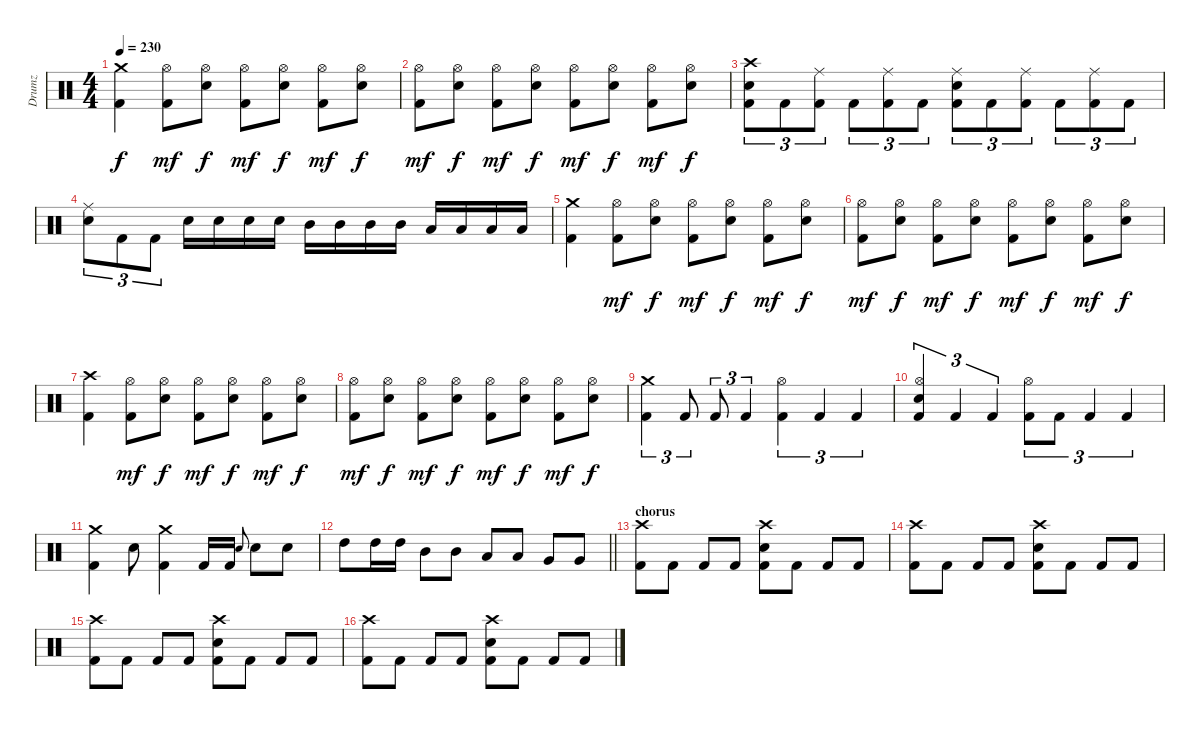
\track ("Drumz" "Drumz") {instrument percussion}
\staff {score}
\articulation defaults
\ts (4 4)
\tempo 230
\clef neutral
\ks c
("Crash medium (hit)" "Kick (hit) 2").4{dy f} ("Hi-Hat (open)" "Kick (hit) 2").8{dy mf} ("Hi-Hat (open)" "Electric Snare (hit)").8{dy f} ("Hi-Hat (open)" "Kick (hit) 2").8{dy mf} ("Hi-Hat (open)" "Electric Snare (hit)").8{dy f} ("Hi-Hat (open)" "Kick (hit) 2").8{dy mf} ("Hi-Hat (open)" "Electric Snare (hit)").8{dy f} |
("Hi-Hat (open)" "Kick (hit) 2").8{dy mf} ("Hi-Hat (open)" "Electric Snare (hit)").8{dy f} ("Hi-Hat (open)" "Kick (hit) 2").8{dy mf} ("Hi-Hat (open)" "Electric Snare (hit)").8{dy f} ("Hi-Hat (open)" "Kick (hit) 2").8{dy mf} ("Hi-Hat (open)" "Electric Snare (hit)").8{dy f} ("Hi-Hat (open)" "Kick (hit) 2").8{dy mf} ("Hi-Hat (open)" "Electric Snare (hit)").8{dy f} |
("Crash high (hit)" "Electric Snare (hit)" "Kick (hit) 2").8{tu (3 2)} "Kick (hit) 2".8{tu (3 2)} ("Ride (middle)" "Kick (hit) 2").8{tu (3 2)} "Kick (hit) 2".8{tu (3 2)} ("Ride (middle)" "Kick (hit) 2").8{tu (3 2)} "Kick (hit) 2".8{tu (3 2)} ("Ride (middle)" "Electric Snare (hit)" "Kick (hit) 2").8{tu (3 2)} "Kick (hit) 2".8{tu (3 2)} ("Ride (middle)" "Kick (hit) 2").8{tu (3 2)} "Kick (hit) 2".8{tu (3 2)} ("Ride (middle)" "Kick (hit) 2").8{tu (3 2)} "Kick (hit) 2".8{tu (3 2)} |
("Ride (middle)" "Electric Snare (hit)").8{tu (3 2)} "Kick (hit) 2".8{tu (3 2)} "Kick (hit) 2".8{tu (3 2)} "Electric Snare (hit)".16 "Electric Snare (hit)".16 "Electric Snare (hit)".16 "Electric Snare (hit)".16 "Mid Tom (hit)".16 "Mid Tom (hit)".16 "Mid Tom (hit)".16 "Mid Tom (hit)".16 "Low Tom (hit)".16 "Low Tom (hit)".16 "Low Tom (hit)".16 "Low Tom (hit)".16 |
("Crash medium (hit)" "Kick (hit) 2").4 ("Hi-Hat (open)" "Kick (hit) 2").8{dy mf} ("Hi-Hat (open)" "Electric Snare (hit)").8{dy f} ("Hi-Hat (open)" "Kick (hit) 2").8{dy mf} ("Hi-Hat (open)" "Electric Snare (hit)").8{dy f} ("Hi-Hat (open)" "Kick (hit) 2").8{dy mf} ("Hi-Hat (open)" "Electric Snare (hit)").8{dy f} |
("Hi-Hat (open)" "Kick (hit) 2").8{dy mf} ("Hi-Hat (open)" "Electric Snare (hit)").8{dy f} ("Hi-Hat (open)" "Kick (hit) 2").8{dy mf} ("Hi-Hat (open)" "Electric Snare (hit)").8{dy f} ("Hi-Hat (open)" "Kick (hit) 2").8{dy mf} ("Hi-Hat (open)" "Electric Snare (hit)").8{dy f} ("Hi-Hat (open)" "Kick (hit) 2").8{dy mf} ("Hi-Hat (open)" "Electric Snare (hit)").8{dy f} |
("Crash high (hit)" "Kick (hit) 2").4 ("Hi-Hat (open)" "Kick (hit) 2").8{dy mf} ("Hi-Hat (open)" "Electric Snare (hit)").8{dy f} ("Hi-Hat (open)" "Kick (hit) 2").8{dy mf} ("Hi-Hat (open)" "Electric Snare (hit)").8{dy f} ("Hi-Hat (open)" "Kick (hit) 2").8{dy mf} ("Hi-Hat (open)" "Electric Snare (hit)").8{dy f} |
("Hi-Hat (open)" "Kick (hit) 2").8{dy mf} ("Hi-Hat (open)" "Electric Snare (hit)").8{dy f} ("Hi-Hat (open)" "Kick (hit) 2").8{dy mf} ("Hi-Hat (open)" "Electric Snare (hit)").8{dy f} ("Hi-Hat (open)" "Kick (hit) 2").8{dy mf} ("Hi-Hat (open)" "Electric Snare (hit)").8{dy f} ("Hi-Hat (open)" "Kick (hit) 2").8{dy mf} ("Hi-Hat (open)" "Electric Snare (hit)").8{dy f} |
("Crash medium (hit)" "Kick (hit) 2").4{tu (3 2)} "Kick (hit) 2".8{tu (3 2)} "Kick (hit) 2".8{tu (3 2)} "Kick (hit) 2".4{tu (3 2)} ("Hi-Hat (open)" "Kick (hit) 2").4{tu (3 2)} "Kick (hit) 2".4{tu (3 2)} "Kick (hit) 2".4{tu (3 2)} |
("Hi-Hat (open)" "Electric Snare (hit)" "Kick (hit) 2").4{tu (3 2)} "Kick (hit) 2".4{tu (3 2)} "Kick (hit) 2".4{tu (3 2)} ("Hi-Hat (open)" "Kick (hit) 2").8{tu (3 2)} "Kick (hit) 2".8{tu (3 2)} "Kick (hit) 2".4{tu (3 2)} "Kick (hit) 2".4{tu (3 2)} |
("Crash medium (hit)" "Kick (hit) 2").4 "Electric Snare (hit)".8 ("Crash medium (hit)" "Kick (hit) 2").4 "Kick (hit) 2".16 "Kick (hit) 2".16 "Electric Snare (hit)".8{gr onbeat} "Electric Snare (hit)".8 "Electric Snare (hit)".8 |
\barLineRight lightlight "High Tom (hit)".8 "High Tom (hit)".16 "High Tom (hit)".16 "Mid Tom (hit)".8 "Mid Tom (hit)".8 "Low Tom (hit)".8 "Low Tom (hit)".8 "Very Low Tom (hit)".8 "Very Low Tom (hit)".8
|
\section ("" "chorus")
("Crash high (hit)" "Kick (hit) 2").8 "Kick (hit) 2".8 "Kick (hit) 2".8 "Kick (hit) 2".8 ("Crash high (hit)" "Electric Snare (hit)" "Kick (hit) 2").8 "Kick (hit) 2".8 "Kick (hit) 2".8 "Kick (hit) 2".8 |
("Crash high (hit)" "Kick (hit) 2").8 "Kick (hit) 2".8 "Kick (hit) 2".8 "Kick (hit) 2".8 ("Crash high (hit)" "Electric Snare (hit)" "Kick (hit) 2").8 "Kick (hit) 2".8 "Kick (hit) 2".8 "Kick (hit) 2".8 |
("Crash high (hit)" "Kick (hit) 2").8 "Kick (hit) 2".8 "Kick (hit) 2".8 "Kick (hit) 2".8 ("Crash high (hit)" "Electric Snare (hit)" "Kick (hit) 2").8 "Kick (hit) 2".8 "Kick (hit) 2".8 "Kick (hit) 2".8 |
("Crash high (hit)" "Kick (hit) 2").8 "Kick (hit) 2".8 "Kick (hit) 2".8 "Kick (hit) 2".8 ("Crash high (hit)" "Electric Snare (hit)" "Kick (hit) 2").8 "Kick (hit) 2".8 "Kick (hit) 2".8 "Kick (hit) 2".8
